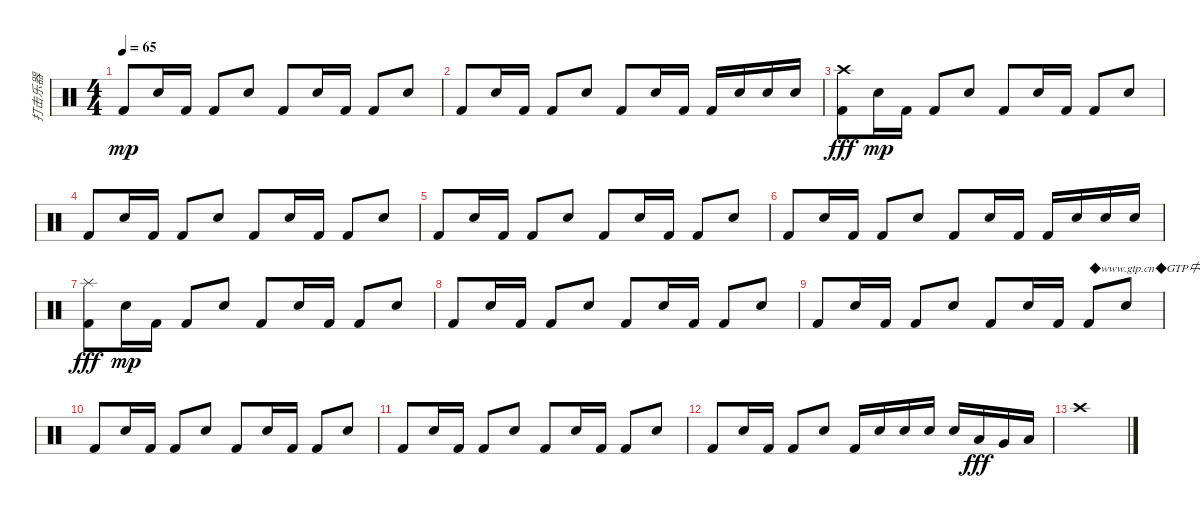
\track ("打击乐器" "打击乐器") {instrument percussion}
\staff {score}
\articulation defaults
\ts (4 4)
\tempo 65
\clef neutral
\ks c "Kick (hit) 2".8{dy mp} "Snare (hit) 2".16 "Kick (hit) 2".16 "Kick (hit) 2".8 "Snare (hit) 2".8 "Kick (hit) 2".8 "Snare (hit) 2".16 "Kick (hit) 2".16 "Kick (hit) 2".8 "Snare (hit) 2".8
|
"Kick (hit) 2".8 "Snare (hit) 2".16 "Kick (hit) 2".16 "Kick (hit) 2".8 "Snare (hit) 2".8 "Kick (hit) 2".8 "Snare (hit) 2".16 "Kick (hit) 2".16 "Kick (hit) 2".16 "Snare (hit) 2".16 "Snare (hit) 2".16 "Snare (hit) 2".16 |
("Kick (hit) 2" "Crash high (hit)").8{dy fff} "Snare (hit) 2".16{dy mp} "Kick (hit) 2".16 "Kick (hit) 2".8 "Snare (hit) 2".8 "Kick (hit) 2".8 "Snare (hit) 2".16 "Kick (hit) 2".16 "Kick (hit) 2".8 "Snare (hit) 2".8 |
"Kick (hit) 2".8 "Snare (hit) 2".16 "Kick (hit) 2".16 "Kick (hit) 2".8 "Snare (hit) 2".8 "Kick (hit) 2".8 "Snare (hit) 2".16 "Kick (hit) 2".16 "Kick (hit) 2".8 "Snare (hit) 2".8 |
"Kick (hit) 2".8 "Snare (hit) 2".16 "Kick (hit) 2".16 "Kick (hit) 2".8 "Snare (hit) 2".8 "Kick (hit) 2".8 "Snare (hit) 2".16 "Kick (hit) 2".16 "Kick (hit) 2".8 "Snare (hit) 2".8 |
"Kick (hit) 2".8 "Snare (hit) 2".16 "Kick (hit) 2".16 "Kick (hit) 2".8 "Snare (hit) 2".8 "Kick (hit) 2".8 "Snare (hit) 2".16 "Kick (hit) 2".16 "Kick (hit) 2".16 "Snare (hit) 2".16 "Snare (hit) 2".16 "Snare (hit) 2".16 |
("Kick (hit) 2" "Splash (hit)").8{dy fff} "Snare (hit) 2".16{dy mp} "Kick (hit) 2".16 "Kick (hit) 2".8 "Snare (hit) 2".8 "Kick (hit) 2".8 "Snare (hit) 2".16 "Kick (hit) 2".16 "Kick (hit) 2".8 "Snare (hit) 2".8 |
"Kick (hit) 2".8 "Snare (hit) 2".16 "Kick (hit) 2".16 "Kick (hit) 2".8 "Snare (hit) 2".8 "Kick (hit) 2".8 "Snare (hit) 2".16 "Kick (hit) 2".16 "Kick (hit) 2".8 "Snare (hit) 2".8 |
"Kick (hit) 2".8 "Snare (hit) 2".16 "Kick (hit) 2".16 "Kick (hit) 2".8 "Snare (hit) 2".8 "Kick (hit) 2".8 "Snare (hit) 2".16 "Kick (hit) 2".16 "Kick (hit) 2".8{txt "◆www.gtp.cn◆GTP中文网为您提供优秀的GTP！"} "Snare (hit) 2".8 |
"Kick (hit) 2".8 "Snare (hit) 2".16 "Kick (hit) 2".16 "Kick (hit) 2".8 "Snare (hit) 2".8 "Kick (hit) 2".8 "Snare (hit) 2".16 "Kick (hit) 2".16 "Kick (hit) 2".8 "Snare (hit) 2".8 |
"Kick (hit) 2".8 "Snare (hit) 2".16 "Kick (hit) 2".16 "Kick (hit) 2".8 "Snare (hit) 2".8 "Kick (hit) 2".8 "Snare (hit) 2".16 "Kick (hit) 2".16 "Kick (hit) 2".8 "Snare (hit) 2".8 |
"Kick (hit) 2".8 "Snare (hit) 2".16 "Kick (hit) 2".16 "Kick (hit) 2".8 "Snare (hit) 2".8 "Kick (hit) 2".16 "Snare (hit) 2".16 "Snare (hit) 2".16 "Snare (hit) 2".16 "Snare (hit) 2".16 "Low Tom (hit)".16{dy fff} "Very Low Tom (hit)".16 "Low Floor Tom (hit)".16 |
"Crash high (hit)".1
